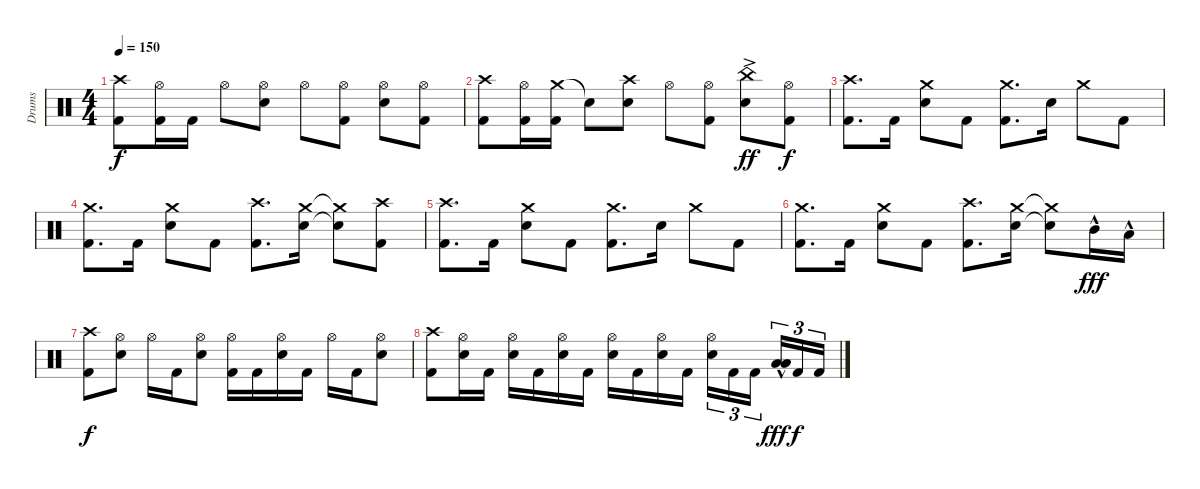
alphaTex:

\track ("Drums" "Drums") {instrument percussion}
\staff {score}
\articulation defaults
\ts (4 4)
\tempo 150
\clef neutral
\ks c
("Crash high (hit)" "Kick (hit) 2").8{dy f} ("Hi-Hat (open)" "Kick (hit) 2").16 "Kick (hit) 2".16 "Hi-Hat (open)".8 ("Hi-Hat (open)" "Electric Snare (hit)").8 "Hi-Hat (open)".8 ("Hi-Hat (open)" "Kick (hit) 2").8 ("Hi-Hat (open)" "Electric Snare (hit)").8 ("Hi-Hat (open)" "Kick (hit) 2").8 |
("Crash high (hit)" "Kick (hit) 2").8 ("Hi-Hat (open)" "Kick (hit) 2").16 ("Crash medium (hit)" "Kick (hit) 2").16 "Snare (hit)"{t}.8 ("Crash high (hit)" "Electric Snare (hit)").8 "Hi-Hat (open)".8 ("Hi-Hat (open)" "Kick (hit) 2").8 ("China (hit)"{ac} "Electric Snare (hit)").8{dy ff} ("Hi-Hat (open)" "Kick (hit) 2").8{dy f} |
("Crash high (hit)" "Kick (hit) 2").8{d} "Kick (hit) 2".16 ("Crash medium (hit)" "Electric Snare (hit)").8 "Kick (hit) 2".8 ("Crash medium (hit)" "Kick (hit) 2").8{d} "Electric Snare (hit)".16 "Crash medium (hit)".8 "Kick (hit) 2".8 |
("Crash medium (hit)" "Kick (hit) 2").8{d} "Kick (hit) 2".16 ("Crash medium (hit)" "Electric Snare (hit)").8 "Kick (hit) 2".8 ("Crash high (hit)" "Kick (hit) 2").8{d} ("Crash medium (hit)" "Electric Snare (hit)").16 ("Crash medium (hit)"{t} "Snare (hit)"{t}).8 ("Crash high (hit)" "Kick (hit) 2").8 |
("Crash high (hit)" "Kick (hit) 2").8{d} "Kick (hit) 2".16 ("Crash medium (hit)" "Electric Snare (hit)").8 "Kick (hit) 2".8 ("Crash medium (hit)" "Kick (hit) 2").8{d} "Electric Snare (hit)".16 "Crash medium (hit)".8 "Kick (hit) 2".8 |
("Crash medium (hit)" "Kick (hit) 2").8{d} "Kick (hit) 2".16 ("Crash medium (hit)" "Electric Snare (hit)").8 "Kick (hit) 2".8 ("Crash high (hit)" "Kick (hit) 2").8{d} ("Crash medium (hit)" "Electric Snare (hit)").16 ("Crash medium (hit)"{t} "Snare (hit)"{t}).8 "Mid Tom (hit)"{hac}.16{dy fff} "Low Tom (hit)"{hac}.16 |
("Crash high (hit)" "Kick (hit) 2").8{dy f} ("Hi-Hat (open)" "Electric Snare (hit)").8 "Hi-Hat (open)".16 "Kick (hit) 2".16 ("Hi-Hat (open)" "Electric Snare (hit)").8 ("Hi-Hat (open)" "Kick (hit) 2").16 "Kick (hit) 2".16 ("Hi-Hat (open)" "Electric Snare (hit)").16 "Kick (hit) 2".16 "Hi-Hat (open)".16 "Kick (hit) 2".16 ("Hi-Hat (open)" "Electric Snare (hit)").8 |
("Crash high (hit)" "Kick (hit) 2").8 ("Hi-Hat (open)" "Electric Snare (hit)").16 "Kick (hit) 2".16 ("Hi-Hat (open)" "Electric Snare (hit)").16 "Kick (hit) 2".16 ("Hi-Hat (open)" "Electric Snare (hit)").16 "Kick (hit) 2".16 ("Hi-Hat (open)" "Electric Snare (hit)").16 "Kick (hit) 2".16 ("Hi-Hat (open)" "Electric Snare (hit)").16 "Kick (hit) 2".16 ("Hi-Hat (open)" "Electric Snare (hit)").16{tu (3 2)} "Kick (hit) 2".16{tu (3 2)} "Kick (hit) 2".16{tu (3 2) beam splitsecondary} ("Low Tom (hit)"{hac} "Low Floor Tom (hit)"{hac}).16{tu (3 2) dy fff} "Kick (hit) 2".16{tu (3 2) dy f} "Kick (hit) 2".16{tu (3 2)}
